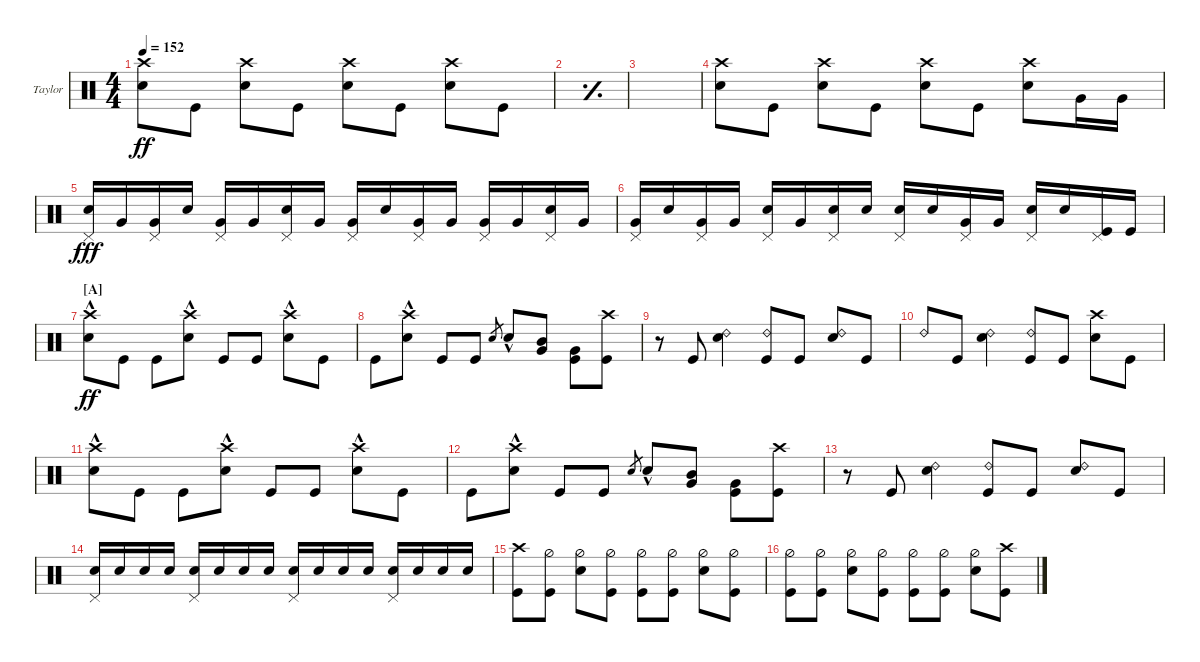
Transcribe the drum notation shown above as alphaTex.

\defaultSystemsLayout 4
\bracketExtendMode nobrackets
\firstSystemTrackNameOrientation horizontal
\otherSystemsTrackNameOrientation horizontal
\track ("Drums (Taylor Hawkins)" "Taylor") {instrument percussion}
\staff {score}
\articulation defaults
\ts (4 4)
\tempo 152
\clef neutral
\ks c
("Crash high (hit)" "Snare (hit) 2").8{dy ff} "Kick (hit)".8 ("Crash high (hit)" "Snare (hit) 2").8 "Kick (hit)".8 ("Crash high (hit)" "Snare (hit) 2").8 "Kick (hit)".8 ("Crash high (hit)" "Snare (hit) 2").8 "Kick (hit)".8 |
\simile simple
|
|
\simile none
("Crash high (hit)" "Snare (hit) 2").8 "Kick (hit)".8 ("Crash high (hit)" "Snare (hit) 2").8 "Kick (hit)".8 ("Crash high (hit)" "Snare (hit) 2").8 "Kick (hit)".8 ("Crash high (hit)" "Snare (hit) 2").8 "Very Low Tom (hit)".16 "Very Low Tom (hit)".16 |
("Snare (hit) 2" "Pedal Hi-Hat (hit)").16{dy fff} "Very Low Tom (hit)".16 ("Very Low Tom (hit)" "Pedal Hi-Hat (hit)").16 "Snare (hit) 2".16 ("Very Low Tom (hit)" "Pedal Hi-Hat (hit)").16 "Very Low Tom (hit)".16 ("Snare (hit) 2" "Pedal Hi-Hat (hit)").16 "Very Low Tom (hit)".16 ("Very Low Tom (hit)" "Pedal Hi-Hat (hit)").16 "Snare (hit) 2".16 ("Very Low Tom (hit)" "Pedal Hi-Hat (hit)").16 "Very Low Tom (hit)".16 ("Very Low Tom (hit)" "Pedal Hi-Hat (hit)").16 "Very Low Tom (hit)".16 ("Snare (hit) 2" "Pedal Hi-Hat (hit)").16 "Very Low Tom (hit)".16 |
("Very Low Tom (hit)" "Pedal Hi-Hat (hit)").16 "Snare (hit) 2".16 ("Very Low Tom (hit)" "Pedal Hi-Hat (hit)").16 "Very Low Tom (hit)".16 ("Snare (hit) 2" "Pedal Hi-Hat (hit)").16 "Very Low Tom (hit)".16 ("Snare (hit) 2" "Pedal Hi-Hat (hit)").16 "Snare (hit) 2".16 ("Snare (hit) 2" "Pedal Hi-Hat (hit)").16 "Snare (hit) 2".16 ("Very Low Tom (hit)" "Pedal Hi-Hat (hit)").16 "Very Low Tom (hit)".16 ("Snare (hit) 2" "Pedal Hi-Hat (hit)").16 "Snare (hit) 2".16 ("Kick (hit)" "Pedal Hi-Hat (hit)").16 "Kick (hit)".16 |
\section ("A" "")
("Snare (hit) 2"{hac} "Crash high (hit)").8{dy ff} "Kick (hit)".8 "Kick (hit)".8 ("Crash high (hit)" "Snare (hit) 2"{hac}).8 "Kick (hit)".8 "Kick (hit)".8 ("Snare (hit) 2"{hac} "Crash high (hit)").8 "Kick (hit)".8 |
"Kick (hit)".8 ("Crash high (hit)" "Snare (hit) 2"{hac}).8 "Kick (hit)".8 "Kick (hit)".8 "Snare (hit) 2".8{gr} "Snare (hit) 2"{hac}.8 ("Mid Tom (hit)" "Very Low Tom (hit)").8 ("Very Low Tom (hit)" "Kick (hit)").8 ("Crash high (hit)" "Kick (hit)").8 |
r.8 "Kick (hit)".8 ("Snare (hit) 2" "Ride (bell) 2").4 ("Ride (bell) 2" "Kick (hit)").8 "Kick (hit)".8 ("Snare (hit) 2" "Ride (bell) 2").8 "Kick (hit)".8 |
"Ride (bell) 2".8 "Kick (hit)".8 ("Snare (hit) 2" "Ride (bell) 2").4 ("Kick (hit)" "Ride (bell) 2").8 "Kick (hit)".8 ("Snare (hit) 2" "Crash high (hit)").8 "Kick (hit)".8 |
("Snare (hit) 2"{hac} "Crash high (hit)").8 "Kick (hit)".8 "Kick (hit)".8 ("Crash high (hit)" "Snare (hit) 2"{hac}).8 "Kick (hit)".8 "Kick (hit)".8 ("Snare (hit) 2"{hac} "Crash high (hit)").8 "Kick (hit)".8 |
"Kick (hit)".8 ("Crash high (hit)" "Snare (hit) 2"{hac}).8 "Kick (hit)".8 "Kick (hit)".8 "Snare (hit) 2".8{gr} "Snare (hit) 2"{hac}.8 ("Mid Tom (hit)" "Very Low Tom (hit)").8 ("Very Low Tom (hit)" "Kick (hit)").8 ("Crash high (hit)" "Kick (hit)").8 |
r.8 "Kick (hit)".8 ("Snare (hit) 2" "Ride (bell) 2").4 ("Ride (bell) 2" "Kick (hit)").8 "Kick (hit)".8 ("Snare (hit) 2" "Ride (bell) 2").8 "Kick (hit)".8 |
("Snare (hit) 2" "Pedal Hi-Hat (hit)").16 "Snare (hit) 2".16 "Snare (hit) 2".16 "Snare (hit) 2".16 ("Snare (hit) 2" "Pedal Hi-Hat (hit)").16 "Snare (hit) 2".16 "Snare (hit) 2".16 "Snare (hit) 2".16 ("Snare (hit) 2" "Pedal Hi-Hat (hit)").16 "Snare (hit) 2".16 "Snare (hit) 2".16 "Snare (hit) 2".16 ("Snare (hit) 2" "Pedal Hi-Hat (hit)").16 "Snare (hit) 2".16 "Snare (hit) 2".16 "Snare (hit) 2".16 |
("Crash high (hit)" "Kick (hit)").8 ("Hi-Hat (half)" "Kick (hit)").8 ("Hi-Hat (half)" "Snare (hit) 2").8 ("Hi-Hat (half)" "Kick (hit)").8 ("Hi-Hat (half)" "Kick (hit)").8 ("Hi-Hat (half)" "Kick (hit)").8 ("Hi-Hat (half)" "Snare (hit) 2").8 ("Hi-Hat (half)" "Kick (hit)").8 |
("Kick (hit)" "Hi-Hat (half)").8 ("Hi-Hat (half)" "Kick (hit)").8 ("Hi-Hat (half)" "Snare (hit) 2").8 ("Hi-Hat (half)" "Kick (hit)").8 ("Hi-Hat (half)" "Kick (hit)").8 ("Hi-Hat (half)" "Kick (hit)").8 ("Hi-Hat (half)" "Snare (hit) 2").8 ("Kick (hit)" "Crash high (hit)").8
